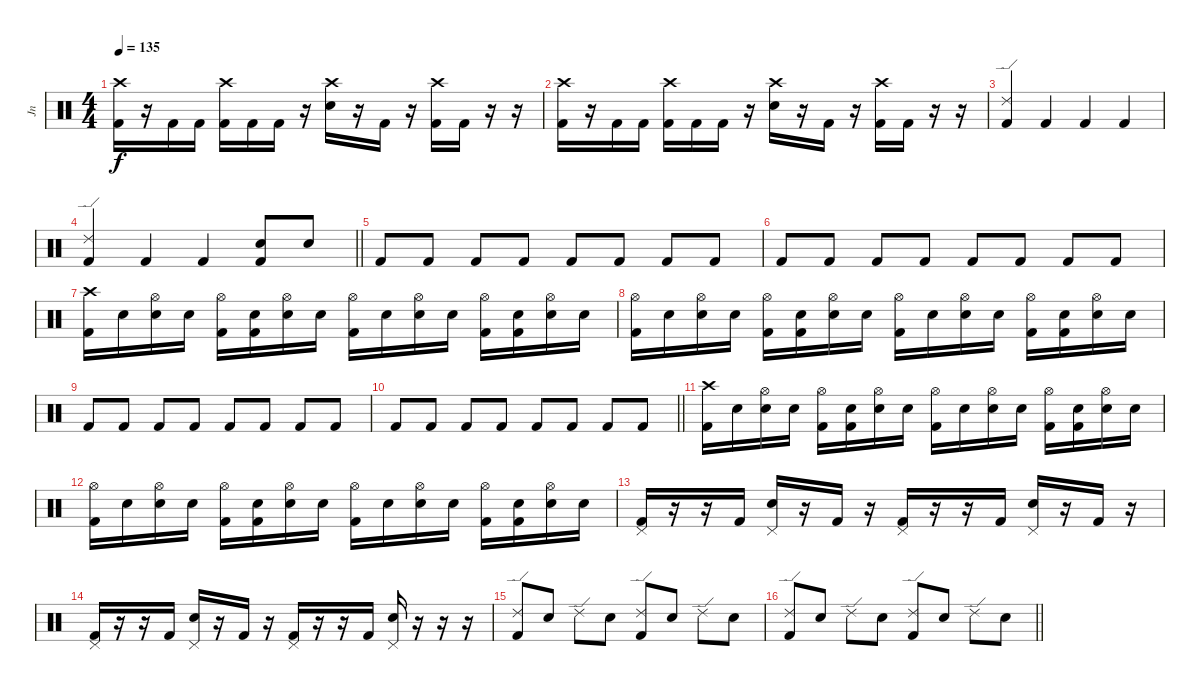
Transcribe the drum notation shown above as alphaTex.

\track ("Jn" "Jn") {instrument percussion}
\staff {score}
\articulation defaults
\ts (4 4)
\tempo 135
\clef neutral
\ks c
("Crash high (hit)" "Kick (hit) 2").16{dy f} r.16 "Kick (hit) 2".16 "Kick (hit) 2".16 ("Crash high (hit)" "Kick (hit) 2").16 "Kick (hit) 2".16 "Kick (hit) 2".16 r.16 ("Crash high (hit)" "Electric Snare (hit)").16 r.16 "Kick (hit) 2".16 r.16 ("Crash high (hit)" "Kick (hit) 2").16 "Kick (hit) 2".16 r.16 r.16 |
("Crash high (hit)" "Kick (hit) 2").16 r.16 "Kick (hit) 2".16 "Kick (hit) 2".16 ("Crash high (hit)" "Kick (hit) 2").16 "Kick (hit) 2".16 "Kick (hit) 2".16 r.16 ("Crash high (hit)" "Electric Snare (hit)").16 r.16 "Kick (hit) 2".16 r.16 ("Crash high (hit)" "Kick (hit) 2").16 "Kick (hit) 2".16 r.16 r.16 |
("Ride (edge) 2" "Kick (hit) 2").4 "Kick (hit) 2".4 "Kick (hit) 2".4 "Kick (hit) 2".4 |
\barLineRight lightlight
("Ride (edge) 2" "Kick (hit) 2").4 "Kick (hit) 2".4 "Kick (hit) 2".4 ("Electric Snare (hit)" "Kick (hit) 2").8 "Electric Snare (hit)".8 |
"Kick (hit) 2".8 "Kick (hit) 2".8 "Kick (hit) 2".8 "Kick (hit) 2".8 "Kick (hit) 2".8 "Kick (hit) 2".8 "Kick (hit) 2".8 "Kick (hit) 2".8 |
"Kick (hit) 2".8 "Kick (hit) 2".8 "Kick (hit) 2".8 "Kick (hit) 2".8 "Kick (hit) 2".8 "Kick (hit) 2".8 "Kick (hit) 2".8 "Kick (hit) 2".8 |
("Crash high (hit)" "Kick (hit) 2").16 "Snare (hit)".16 ("Hi-Hat (open)" "Electric Snare (hit)").16 "Snare (hit)".16 ("Hi-Hat (open)" "Kick (hit) 2").16 ("Snare (hit)" "Kick (hit) 2").16 ("Hi-Hat (open)" "Electric Snare (hit)").16 "Snare (hit)".16 ("Hi-Hat (open)" "Kick (hit) 2").16 "Snare (hit)".16 ("Hi-Hat (open)" "Electric Snare (hit)").16 "Snare (hit)".16 ("Hi-Hat (open)" "Kick (hit) 2").16 ("Snare (hit)" "Kick (hit) 2").16 ("Hi-Hat (open)" "Electric Snare (hit)").16 "Snare (hit)".16 |
("Hi-Hat (open)" "Kick (hit) 2").16 "Snare (hit)".16 ("Hi-Hat (open)" "Electric Snare (hit)").16 "Snare (hit)".16 ("Hi-Hat (open)" "Kick (hit) 2").16 ("Snare (hit)" "Kick (hit) 2").16 ("Hi-Hat (open)" "Electric Snare (hit)").16 "Snare (hit)".16 ("Hi-Hat (open)" "Kick (hit) 2").16 "Snare (hit)".16 ("Hi-Hat (open)" "Electric Snare (hit)").16 "Snare (hit)".16 ("Hi-Hat (open)" "Kick (hit) 2").16 ("Snare (hit)" "Kick (hit) 2").16 ("Hi-Hat (open)" "Electric Snare (hit)").16 "Snare (hit)".16 |
"Kick (hit) 2".8 "Kick (hit) 2".8 "Kick (hit) 2".8 "Kick (hit) 2".8 "Kick (hit) 2".8 "Kick (hit) 2".8 "Kick (hit) 2".8 "Kick (hit) 2".8 |
\barLineRight lightlight "Kick (hit) 2".8 "Kick (hit) 2".8 "Kick (hit) 2".8 "Kick (hit) 2".8 "Kick (hit) 2".8 "Kick (hit) 2".8 "Kick (hit) 2".8 "Kick (hit) 2".8
|
("Crash high (hit)" "Kick (hit) 2").16 "Snare (hit)".16 ("Hi-Hat (open)" "Electric Snare (hit)").16 "Snare (hit)".16 ("Hi-Hat (open)" "Kick (hit) 2").16 ("Snare (hit)" "Kick (hit) 2").16 ("Hi-Hat (open)" "Electric Snare (hit)").16 "Snare (hit)".16 ("Hi-Hat (open)" "Kick (hit) 2").16 "Snare (hit)".16 ("Hi-Hat (open)" "Electric Snare (hit)").16 "Snare (hit)".16 ("Hi-Hat (open)" "Kick (hit) 2").16 ("Snare (hit)" "Kick (hit) 2").16 ("Hi-Hat (open)" "Electric Snare (hit)").16 "Snare (hit)".16 |
("Hi-Hat (open)" "Kick (hit) 2").16 "Snare (hit)".16 ("Hi-Hat (open)" "Electric Snare (hit)").16 "Snare (hit)".16 ("Hi-Hat (open)" "Kick (hit) 2").16 ("Snare (hit)" "Kick (hit) 2").16 ("Hi-Hat (open)" "Electric Snare (hit)").16 "Snare (hit)".16 ("Hi-Hat (open)" "Kick (hit) 2").16 "Snare (hit)".16 ("Hi-Hat (open)" "Electric Snare (hit)").16 "Snare (hit)".16 ("Hi-Hat (open)" "Kick (hit) 2").16 ("Snare (hit)" "Kick (hit) 2").16 ("Hi-Hat (open)" "Electric Snare (hit)").16 "Snare (hit)".16 |
("Pedal Hi-Hat (hit)" "Kick (hit) 2").16 r.16 r.16 "Kick (hit) 2".16 ("Pedal Hi-Hat (hit)" "Electric Snare (hit)").16 r.16 "Kick (hit) 2".16 r.16 ("Pedal Hi-Hat (hit)" "Kick (hit) 2").16 r.16 r.16 "Kick (hit) 2".16 ("Pedal Hi-Hat (hit)" "Electric Snare (hit)").16 r.16 "Kick (hit) 2".16 r.16 |
("Pedal Hi-Hat (hit)" "Kick (hit) 2").16 r.16 r.16 "Kick (hit) 2".16 ("Pedal Hi-Hat (hit)" "Electric Snare (hit)").16 r.16 "Kick (hit) 2".16 r.16 ("Pedal Hi-Hat (hit)" "Kick (hit) 2").16 r.16 r.16 "Kick (hit) 2".16 ("Pedal Hi-Hat (hit)" "Electric Snare (hit)").16 r.16 r.16 r.16 |
("Ride (edge) 2" "Kick (hit) 2").8 "Snare (hit)".8 "Ride (edge) 2".8 "Snare (hit)".8 ("Ride (edge) 2" "Kick (hit) 2").8 "Snare (hit)".8 "Ride (edge) 2".8 "Snare (hit)".8 |
\barLineRight lightlight
("Ride (edge) 2" "Kick (hit) 2").8 "Snare (hit)".8 "Ride (edge) 2".8 "Snare (hit)".8 ("Ride (edge) 2" "Kick (hit) 2").8 "Snare (hit)".8 "Ride (edge) 2".8 "Snare (hit)".8
